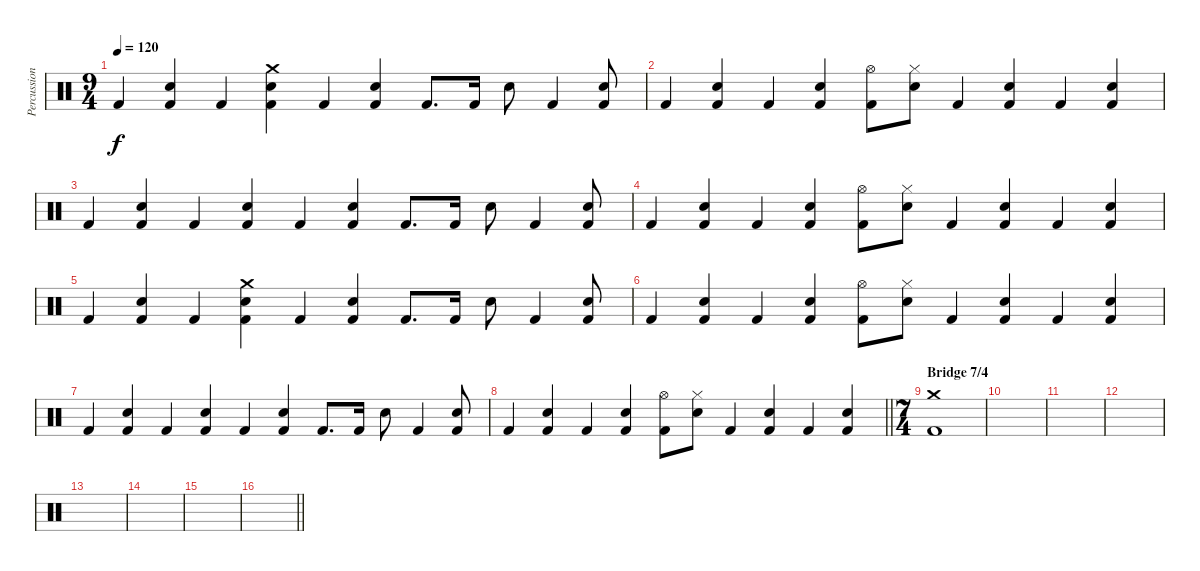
\track ("Percussion" "Percussion") {instrument percussion}
\staff {score}
\articulation defaults
\ts (9 4)
\tempo 120
\clef neutral
\ks c "Kick (hit) 2".4{dy f}
("Snare (hit) 2" "Kick (hit) 2").4 "Kick (hit) 2".4 ("Crash medium (hit)" "Snare (hit) 2" "Kick (hit) 2").4 "Kick (hit) 2".4 ("Snare (hit) 2" "Kick (hit) 2").4 "Kick (hit) 2".8{d} "Kick (hit) 2".16 "Snare (hit) 2".8 "Kick (hit) 2".4 ("Snare (hit) 2" "Kick (hit) 2").8 |
"Kick (hit) 2".4 ("Snare (hit) 2" "Kick (hit) 2").4 "Kick (hit) 2".4 ("Snare (hit) 2" "Kick (hit) 2").4 ("Hi-Hat (open)" "Kick (hit) 2").8 ("Hi-Hat (closed)" "Snare (hit) 2").8 "Kick (hit) 2".4 ("Snare (hit) 2" "Kick (hit) 2").4 "Kick (hit) 2".4 ("Snare (hit) 2" "Kick (hit) 2").4 |
"Kick (hit) 2".4 ("Snare (hit) 2" "Kick (hit) 2").4 "Kick (hit) 2".4 ("Snare (hit) 2" "Kick (hit) 2").4 "Kick (hit) 2".4 ("Snare (hit) 2" "Kick (hit) 2").4 "Kick (hit) 2".8{d} "Kick (hit) 2".16 "Snare (hit) 2".8 "Kick (hit) 2".4 ("Snare (hit) 2" "Kick (hit) 2").8 |
"Kick (hit) 2".4 ("Snare (hit) 2" "Kick (hit) 2").4 "Kick (hit) 2".4 ("Snare (hit) 2" "Kick (hit) 2").4 ("Hi-Hat (open)" "Kick (hit) 2").8 ("Hi-Hat (closed)" "Snare (hit) 2").8 "Kick (hit) 2".4 ("Snare (hit) 2" "Kick (hit) 2").4 "Kick (hit) 2".4 ("Snare (hit) 2" "Kick (hit) 2").4 |
"Kick (hit) 2".4 ("Snare (hit) 2" "Kick (hit) 2").4 "Kick (hit) 2".4 ("Crash medium (hit)" "Snare (hit) 2" "Kick (hit) 2").4 "Kick (hit) 2".4 ("Snare (hit) 2" "Kick (hit) 2").4 "Kick (hit) 2".8{d} "Kick (hit) 2".16 "Snare (hit) 2".8 "Kick (hit) 2".4 ("Snare (hit) 2" "Kick (hit) 2").8 |
"Kick (hit) 2".4 ("Snare (hit) 2" "Kick (hit) 2").4 "Kick (hit) 2".4 ("Snare (hit) 2" "Kick (hit) 2").4 ("Hi-Hat (open)" "Kick (hit) 2").8 ("Hi-Hat (closed)" "Snare (hit) 2").8 "Kick (hit) 2".4 ("Snare (hit) 2" "Kick (hit) 2").4 "Kick (hit) 2".4 ("Snare (hit) 2" "Kick (hit) 2").4 |
"Kick (hit) 2".4 ("Snare (hit) 2" "Kick (hit) 2").4 "Kick (hit) 2".4 ("Snare (hit) 2" "Kick (hit) 2").4 "Kick (hit) 2".4 ("Snare (hit) 2" "Kick (hit) 2").4 "Kick (hit) 2".8{d} "Kick (hit) 2".16 "Snare (hit) 2".8 "Kick (hit) 2".4 ("Snare (hit) 2" "Kick (hit) 2").8 |
\barLineRight lightlight "Kick (hit) 2".4
("Snare (hit) 2" "Kick (hit) 2").4 "Kick (hit) 2".4 ("Snare (hit) 2" "Kick (hit) 2").4 ("Hi-Hat (open)" "Kick (hit) 2").8 ("Hi-Hat (closed)" "Snare (hit) 2").8 "Kick (hit) 2".4 ("Snare (hit) 2" "Kick (hit) 2").4 "Kick (hit) 2".4 ("Snare (hit) 2" "Kick (hit) 2").4 |
\ts (7 4)
\section ("" "Bridge 7/4")
("Crash medium (hit)" "Kick (hit) 2").1 |
|
|
|
|
|
|
\barLineRight lightlight
